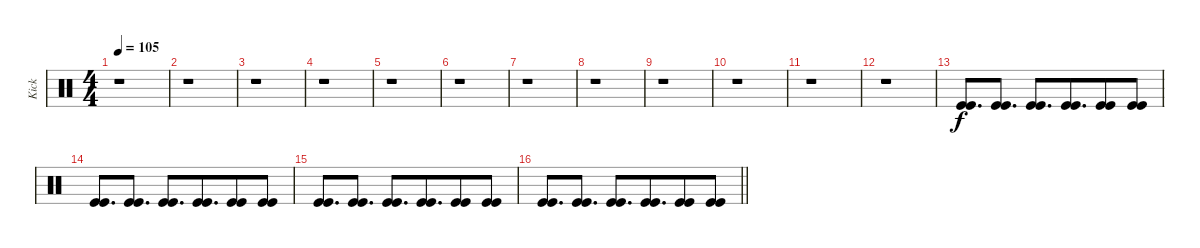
\track ("Kick" "Kick") {instrument percussion}
\staff {score}
\articulation defaults
\ts (4 4)
\tempo 105
\clef neutral
\ks c
r.1{dy f} |
r.1 |
r.1 |
r.1 |
r.1 |
r.1 |
r.1 |
r.1 |
r.1 |
r.1 |
r.1 |
r.1 |
("Kick (hit)" "Kick (hit)").8{d beam merge} ("Kick (hit)" "Kick (hit)").8{d} ("Kick (hit)" "Kick (hit)").8{d beam merge} ("Kick (hit)" "Kick (hit)").8{d beam merge} ("Kick (hit)" "Kick (hit)").8{beam merge} ("Kick (hit)" "Kick (hit)").8 |
("Kick (hit)" "Kick (hit)").8{d beam merge} ("Kick (hit)" "Kick (hit)").8{d} ("Kick (hit)" "Kick (hit)").8{d beam merge} ("Kick (hit)" "Kick (hit)").8{d beam merge} ("Kick (hit)" "Kick (hit)").8{beam merge} ("Kick (hit)" "Kick (hit)").8 |
("Kick (hit)" "Kick (hit)").8{d beam merge} ("Kick (hit)" "Kick (hit)").8{d} ("Kick (hit)" "Kick (hit)").8{d beam merge} ("Kick (hit)" "Kick (hit)").8{d beam merge} ("Kick (hit)" "Kick (hit)").8{beam merge} ("Kick (hit)" "Kick (hit)").8 |
\barLineRight lightlight
("Kick (hit)" "Kick (hit)").8{d beam merge} ("Kick (hit)" "Kick (hit)").8{d} ("Kick (hit)" "Kick (hit)").8{d beam merge} ("Kick (hit)" "Kick (hit)").8{d beam merge} ("Kick (hit)" "Kick (hit)").8{beam merge} ("Kick (hit)" "Kick (hit)").8
